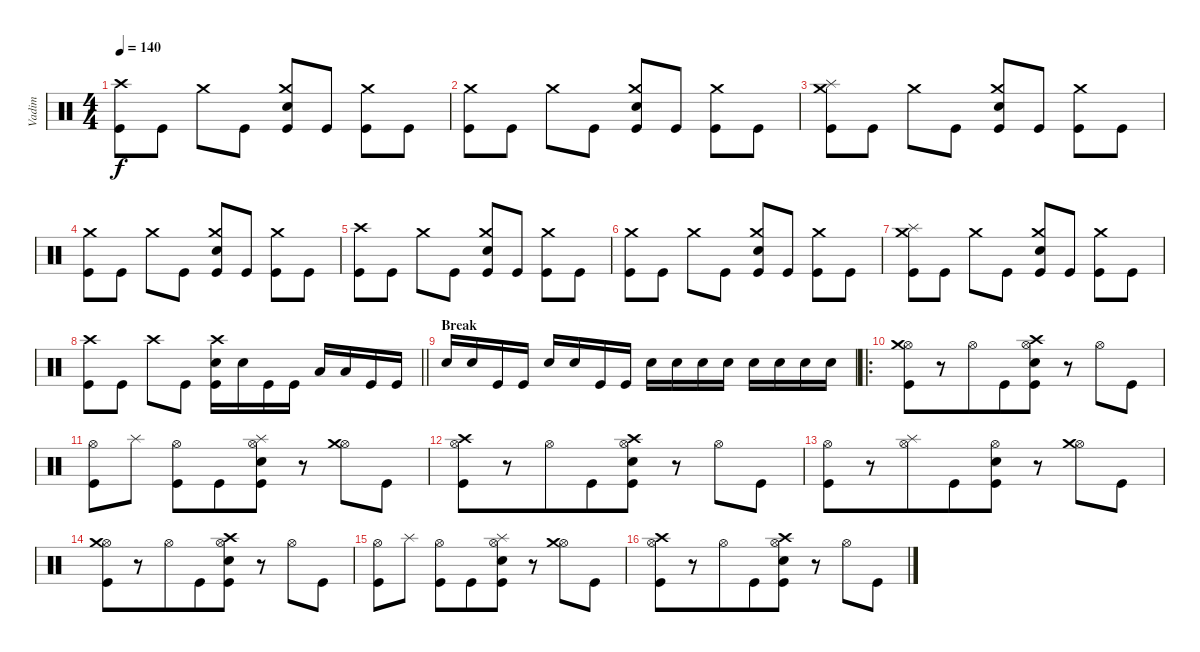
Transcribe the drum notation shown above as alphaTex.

\track ("Vadim" "Vadim") {instrument percussion}
\staff {score}
\articulation defaults
\ts (4 4)
\tempo 140
\clef neutral
\ks c
("Crash high (hit)" "Kick (hit)").8{dy f} "Kick (hit)".8 "Crash medium (hit)".8 "Kick (hit)".8 ("Crash medium (hit)" "Electric Snare (hit)" "Kick (hit)").8 "Kick (hit)".8 ("Crash medium (hit)" "Kick (hit)").8 "Kick (hit)".8 |
("Crash medium (hit)" "Kick (hit)").8 "Kick (hit)".8 "Crash medium (hit)".8 "Kick (hit)".8 ("Crash medium (hit)" "Electric Snare (hit)" "Kick (hit)").8 "Kick (hit)".8 ("Crash medium (hit)" "Kick (hit)").8 "Kick (hit)".8 |
("Crash medium (hit)" "Splash (hit)" "Kick (hit)").8 "Kick (hit)".8 "Crash medium (hit)".8 "Kick (hit)".8 ("Crash medium (hit)" "Electric Snare (hit)" "Kick (hit)").8 "Kick (hit)".8 ("Crash medium (hit)" "Kick (hit)").8 "Kick (hit)".8 |
("Crash medium (hit)" "Kick (hit)").8 "Kick (hit)".8 "Crash medium (hit)".8 "Kick (hit)".8 ("Crash medium (hit)" "Electric Snare (hit)" "Kick (hit)").8 "Kick (hit)".8 ("Crash medium (hit)" "Kick (hit)").8 "Kick (hit)".8 |
("Crash high (hit)" "Kick (hit)").8 "Kick (hit)".8 "Crash medium (hit)".8 "Kick (hit)".8 ("Crash medium (hit)" "Electric Snare (hit)" "Kick (hit)").8 "Kick (hit)".8 ("Crash medium (hit)" "Kick (hit)").8 "Kick (hit)".8 |
("Crash medium (hit)" "Kick (hit)").8 "Kick (hit)".8 "Crash medium (hit)".8 "Kick (hit)".8 ("Crash medium (hit)" "Electric Snare (hit)" "Kick (hit)").8 "Kick (hit)".8 ("Crash medium (hit)" "Kick (hit)").8 "Kick (hit)".8 |
("Crash medium (hit)" "Splash (hit)" "Kick (hit)").8 "Kick (hit)".8 "Crash medium (hit)".8 "Kick (hit)".8 ("Crash medium (hit)" "Electric Snare (hit)" "Kick (hit)").8 "Kick (hit)".8 ("Crash medium (hit)" "Kick (hit)").8 "Kick (hit)".8 |
\barLineRight lightlight
("Crash high (hit)" "Kick (hit)").8 "Kick (hit)".8 "Crash high (hit)".8 "Kick (hit)".8 ("Crash high (hit)" "Electric Snare (hit)" "Kick (hit)").16 "Electric Snare (hit)".16 "Kick (hit)".16 "Kick (hit)".16 "Low Floor Tom (hit)".16 "Low Floor Tom (hit)".16 "Kick (hit)".16 "Kick (hit)".16 |
\section ("" "Break")
"Electric Snare (hit)".16 "Electric Snare (hit)".16 "Kick (hit)".16 "Kick (hit)".16 "Electric Snare (hit)".16 "Electric Snare (hit)".16 "Kick (hit)".16 "Kick (hit)".16 "Electric Snare (hit)".16 "Electric Snare (hit)".16 "Electric Snare (hit)".16 "Electric Snare (hit)".16 "Electric Snare (hit)".16 "Electric Snare (hit)".16 "Electric Snare (hit)".16 "Electric Snare (hit)".16 |
\ro
("Hi-Hat (open)" "Crash medium (hit)" "Kick (hit)").8{beam merge} r.8 "Hi-Hat (open)".8{beam merge} "Kick (hit)".8{beam merge} ("Hi-Hat (open)" "Crash high (hit)" "Electric Snare (hit)" "Kick (hit)").8 r.8 "Hi-Hat (open)".8 "Kick (hit)".8 |
("Hi-Hat (open)" "Kick (hit)").8{beam merge} "Splash (hit)".8 ("Hi-Hat (open)" "Kick (hit)").8{beam merge} "Kick (hit)".8{beam merge} ("Hi-Hat (open)" "Splash (hit)" "Electric Snare (hit)" "Kick (hit)").8 r.8 ("Hi-Hat (open)" "Crash medium (hit)").8 "Kick (hit)".8 |
("Hi-Hat (open)" "Crash high (hit)" "Kick (hit)").8{beam merge} r.8 "Hi-Hat (open)".8{beam merge} "Kick (hit)".8{beam merge} ("Hi-Hat (open)" "Crash high (hit)" "Electric Snare (hit)" "Kick (hit)").8 r.8 "Hi-Hat (open)".8 "Kick (hit)".8 |
("Hi-Hat (open)" "Kick (hit)").8{beam merge} r.8 ("Hi-Hat (open)" "Splash (hit)").8{beam merge} "Kick (hit)".8{beam merge} ("Hi-Hat (open)" "Electric Snare (hit)" "Kick (hit)").8 r.8 ("Hi-Hat (open)" "Crash medium (hit)").8 "Kick (hit)".8 |
("Hi-Hat (open)" "Crash medium (hit)" "Kick (hit)").8{beam merge} r.8 "Hi-Hat (open)".8{beam merge} "Kick (hit)".8{beam merge} ("Hi-Hat (open)" "Crash high (hit)" "Electric Snare (hit)" "Kick (hit)").8 r.8 "Hi-Hat (open)".8 "Kick (hit)".8 |
("Hi-Hat (open)" "Kick (hit)").8{beam merge} "Splash (hit)".8 ("Hi-Hat (open)" "Kick (hit)").8{beam merge} "Kick (hit)".8{beam merge} ("Hi-Hat (open)" "Splash (hit)" "Electric Snare (hit)" "Kick (hit)").8 r.8 ("Hi-Hat (open)" "Crash medium (hit)").8 "Kick (hit)".8 |
("Hi-Hat (open)" "Crash high (hit)" "Kick (hit)").8{beam merge} r.8 "Hi-Hat (open)".8{beam merge} "Kick (hit)".8{beam merge} ("Hi-Hat (open)" "Crash high (hit)" "Electric Snare (hit)" "Kick (hit)").8 r.8 "Hi-Hat (open)".8 "Kick (hit)".8
